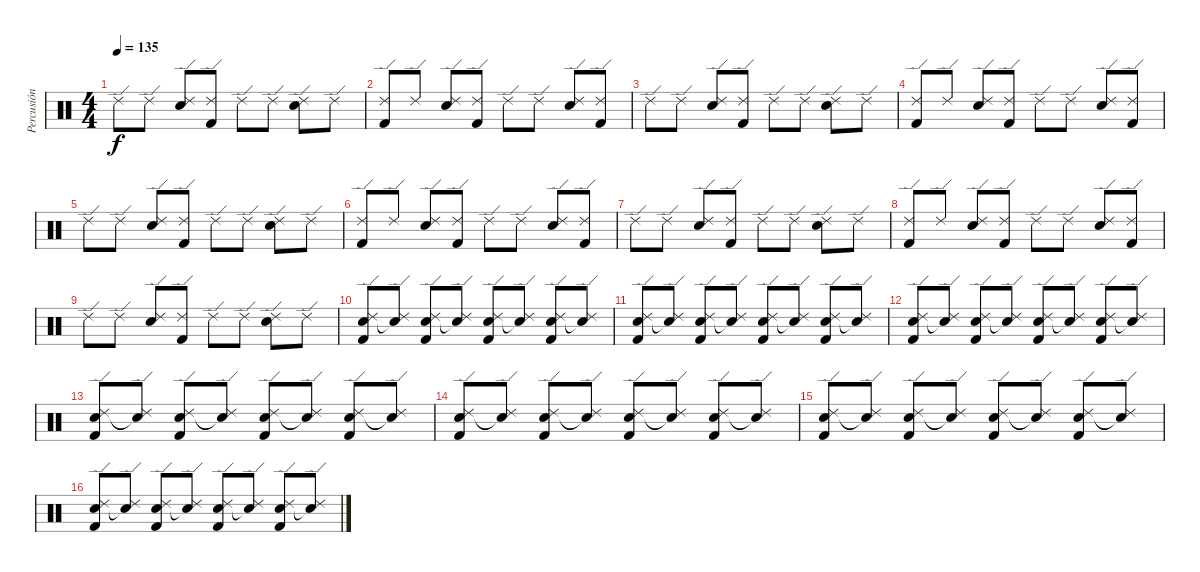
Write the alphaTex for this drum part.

\track ("Percusión" "Percusión") {instrument percussion}
\staff {score}
\articulation defaults
\ts (4 4)
\tempo 135
\clef neutral
\ks c "Ride (edge) 2".8{dy f} "Ride (edge) 2".8
("Ride (edge) 2" "Electric Snare (hit)").8 ("Kick (hit) 2" "Ride (edge) 2").8 "Ride (edge) 2".8 "Ride (edge) 2".8 ("Ride (edge) 2" "Electric Snare (hit)").8 "Ride (edge) 2".8 |
("Kick (hit) 2" "Ride (edge) 2").8 "Ride (edge) 2".8 ("Ride (edge) 2" "Electric Snare (hit)").8 ("Kick (hit) 2" "Ride (edge) 2").8 "Ride (edge) 2".8 "Ride (edge) 2".8 ("Ride (edge) 2" "Electric Snare (hit)").8 ("Kick (hit) 2" "Ride (edge) 2").8 |
"Ride (edge) 2".8 "Ride (edge) 2".8 ("Ride (edge) 2" "Electric Snare (hit)").8 ("Kick (hit) 2" "Ride (edge) 2").8 "Ride (edge) 2".8 "Ride (edge) 2".8 ("Ride (edge) 2" "Electric Snare (hit)").8 "Ride (edge) 2".8 |
("Kick (hit) 2" "Ride (edge) 2").8 "Ride (edge) 2".8 ("Ride (edge) 2" "Electric Snare (hit)").8 ("Kick (hit) 2" "Ride (edge) 2").8 "Ride (edge) 2".8 "Ride (edge) 2".8 ("Ride (edge) 2" "Electric Snare (hit)").8 ("Kick (hit) 2" "Ride (edge) 2").8 |
"Ride (edge) 2".8 "Ride (edge) 2".8 ("Ride (edge) 2" "Electric Snare (hit)").8 ("Kick (hit) 2" "Ride (edge) 2").8 "Ride (edge) 2".8 "Ride (edge) 2".8 ("Ride (edge) 2" "Electric Snare (hit)").8 "Ride (edge) 2".8 |
("Kick (hit) 2" "Ride (edge) 2").8 "Ride (edge) 2".8 ("Ride (edge) 2" "Electric Snare (hit)").8 ("Kick (hit) 2" "Ride (edge) 2").8 "Ride (edge) 2".8 "Ride (edge) 2".8 ("Ride (edge) 2" "Electric Snare (hit)").8 ("Kick (hit) 2" "Ride (edge) 2").8 |
"Ride (edge) 2".8 "Ride (edge) 2".8 ("Ride (edge) 2" "Electric Snare (hit)").8 ("Kick (hit) 2" "Ride (edge) 2").8 "Ride (edge) 2".8 "Ride (edge) 2".8 ("Ride (edge) 2" "Electric Snare (hit)").8 "Ride (edge) 2".8 |
("Kick (hit) 2" "Ride (edge) 2").8 "Ride (edge) 2".8 ("Ride (edge) 2" "Electric Snare (hit)").8 ("Kick (hit) 2" "Ride (edge) 2").8 "Ride (edge) 2".8 "Ride (edge) 2".8 ("Ride (edge) 2" "Electric Snare (hit)").8 ("Kick (hit) 2" "Ride (edge) 2").8 |
"Ride (edge) 2".8 "Ride (edge) 2".8 ("Ride (edge) 2" "Electric Snare (hit)").8 ("Kick (hit) 2" "Ride (edge) 2").8 "Ride (edge) 2".8 "Ride (edge) 2".8 ("Ride (edge) 2" "Electric Snare (hit)").8 "Ride (edge) 2".8 |
("Kick (hit) 2" "Ride (edge) 2" "Electric Snare (hit)").8 ("Ride (edge) 2" "Snare (hit)"{t}).8 ("Kick (hit) 2" "Ride (edge) 2" "Electric Snare (hit)").8 ("Ride (edge) 2" "Snare (hit)"{t}).8 ("Kick (hit) 2" "Ride (edge) 2" "Electric Snare (hit)").8 ("Ride (edge) 2" "Snare (hit)"{t}).8 ("Kick (hit) 2" "Ride (edge) 2" "Electric Snare (hit)").8 ("Ride (edge) 2" "Snare (hit)"{t}).8 |
("Kick (hit) 2" "Ride (edge) 2" "Electric Snare (hit)").8 ("Ride (edge) 2" "Snare (hit)"{t}).8 ("Kick (hit) 2" "Ride (edge) 2" "Electric Snare (hit)").8 ("Ride (edge) 2" "Snare (hit)"{t}).8 ("Kick (hit) 2" "Ride (edge) 2" "Electric Snare (hit)").8 ("Ride (edge) 2" "Snare (hit)"{t}).8 ("Kick (hit) 2" "Ride (edge) 2" "Electric Snare (hit)").8 ("Ride (edge) 2" "Snare (hit)"{t}).8 |
("Kick (hit) 2" "Ride (edge) 2" "Electric Snare (hit)").8 ("Ride (edge) 2" "Snare (hit)"{t}).8 ("Kick (hit) 2" "Ride (edge) 2" "Electric Snare (hit)").8 ("Ride (edge) 2" "Snare (hit)"{t}).8 ("Kick (hit) 2" "Ride (edge) 2" "Electric Snare (hit)").8 ("Ride (edge) 2" "Snare (hit)"{t}).8 ("Kick (hit) 2" "Ride (edge) 2" "Electric Snare (hit)").8 ("Ride (edge) 2" "Snare (hit)"{t}).8 |
("Kick (hit) 2" "Ride (edge) 2" "Electric Snare (hit)").8 ("Ride (edge) 2" "Snare (hit)"{t}).8 ("Kick (hit) 2" "Ride (edge) 2" "Electric Snare (hit)").8 ("Ride (edge) 2" "Snare (hit)"{t}).8 ("Kick (hit) 2" "Ride (edge) 2" "Electric Snare (hit)").8 ("Ride (edge) 2" "Snare (hit)"{t}).8 ("Kick (hit) 2" "Ride (edge) 2" "Electric Snare (hit)").8 ("Ride (edge) 2" "Snare (hit)"{t}).8 |
("Kick (hit) 2" "Ride (edge) 2" "Electric Snare (hit)").8 ("Ride (edge) 2" "Snare (hit)"{t}).8 ("Kick (hit) 2" "Ride (edge) 2" "Electric Snare (hit)").8 ("Ride (edge) 2" "Snare (hit)"{t}).8 ("Kick (hit) 2" "Ride (edge) 2" "Electric Snare (hit)").8 ("Ride (edge) 2" "Snare (hit)"{t}).8 ("Kick (hit) 2" "Ride (edge) 2" "Electric Snare (hit)").8 ("Ride (edge) 2" "Snare (hit)"{t}).8 |
("Kick (hit) 2" "Ride (edge) 2" "Electric Snare (hit)").8 ("Ride (edge) 2" "Snare (hit)"{t}).8 ("Kick (hit) 2" "Ride (edge) 2" "Electric Snare (hit)").8 ("Ride (edge) 2" "Snare (hit)"{t}).8 ("Kick (hit) 2" "Ride (edge) 2" "Electric Snare (hit)").8 ("Ride (edge) 2" "Snare (hit)"{t}).8 ("Kick (hit) 2" "Ride (edge) 2" "Electric Snare (hit)").8 ("Ride (edge) 2" "Snare (hit)"{t}).8 |
("Kick (hit) 2" "Ride (edge) 2" "Electric Snare (hit)").8 ("Ride (edge) 2" "Snare (hit)"{t}).8 ("Kick (hit) 2" "Ride (edge) 2" "Electric Snare (hit)").8 ("Ride (edge) 2" "Snare (hit)"{t}).8 ("Kick (hit) 2" "Ride (edge) 2" "Electric Snare (hit)").8 ("Ride (edge) 2" "Snare (hit)"{t}).8 ("Kick (hit) 2" "Ride (edge) 2" "Electric Snare (hit)").8 ("Ride (edge) 2" "Snare (hit)"{t}).8
